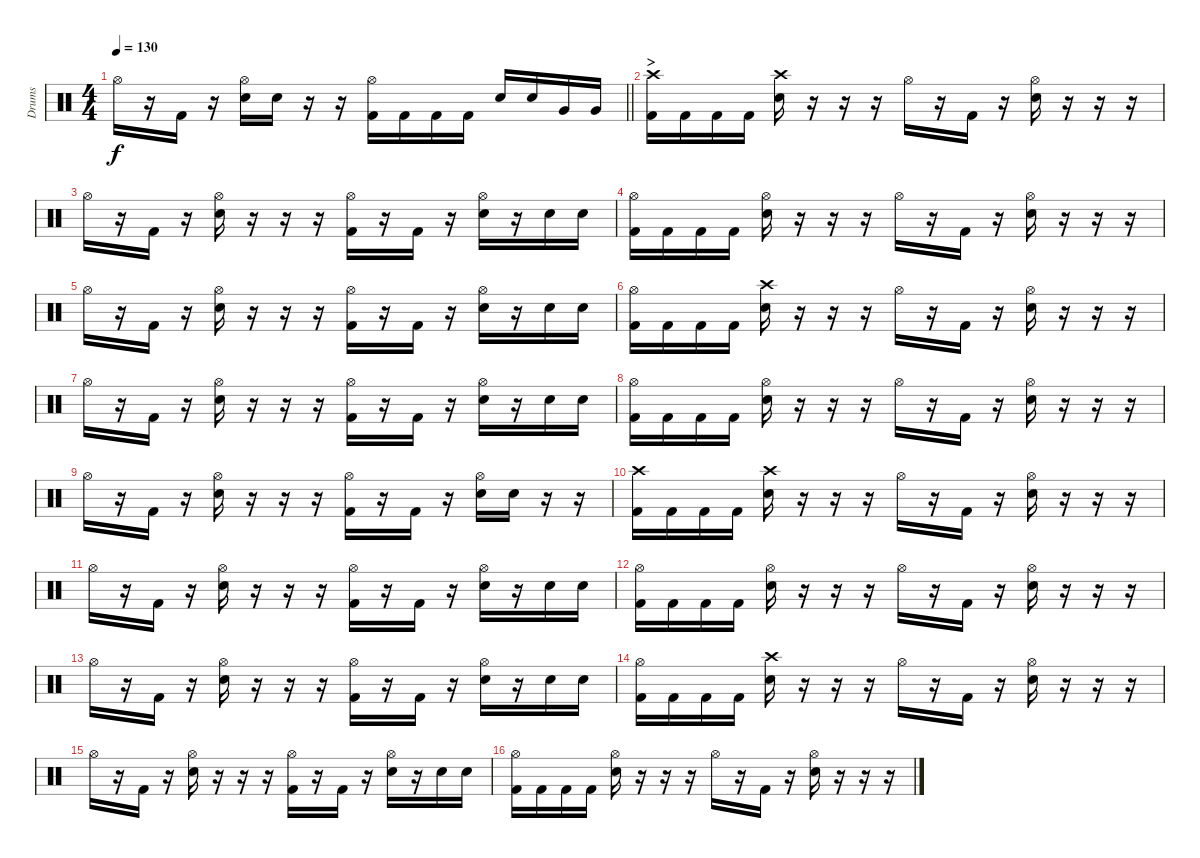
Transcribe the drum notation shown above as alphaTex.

\track ("Drums" "Drums") {instrument percussion}
\staff {score}
\articulation defaults
\ts (4 4)
\tempo 130
\clef neutral
\barLineRight lightlight
\ks c "Hi-Hat (open)".16{dy f}
r.16 "Kick (hit) 2".16 r.16 ("Hi-Hat (open)" "Electric Snare (hit)").16 "Electric Snare (hit)".16 r.16 r.16 ("Hi-Hat (open)" "Kick (hit) 2").16 "Kick (hit) 2".16 "Kick (hit) 2".16 "Kick (hit) 2".16 "Electric Snare (hit)".16 "Electric Snare (hit)".16 "Very Low Tom (hit)".16 "Very Low Tom (hit)".16 |
\section ("" ">")
("Crash high (hit)" "Kick (hit) 2").16 "Kick (hit) 2".16 "Kick (hit) 2".16 "Kick (hit) 2".16 ("Crash high (hit)" "Electric Snare (hit)").16 r.16 r.16 r.16 "Hi-Hat (open)".16 r.16 "Kick (hit) 2".16 r.16 ("Hi-Hat (open)" "Electric Snare (hit)").16 r.16 r.16 r.16 |
"Hi-Hat (open)".16 r.16 "Kick (hit) 2".16 r.16 ("Hi-Hat (open)" "Electric Snare (hit)").16 r.16 r.16 r.16 ("Hi-Hat (open)" "Kick (hit) 2").16 r.16 "Kick (hit) 2".16 r.16 ("Hi-Hat (open)" "Electric Snare (hit)").16 r.16 "Electric Snare (hit)".16 "Electric Snare (hit)".16 |
("Hi-Hat (open)" "Kick (hit) 2").16 "Kick (hit) 2".16 "Kick (hit) 2".16 "Kick (hit) 2".16 ("Hi-Hat (open)" "Electric Snare (hit)").16 r.16 r.16 r.16 "Hi-Hat (open)".16 r.16 "Kick (hit) 2".16 r.16 ("Hi-Hat (open)" "Electric Snare (hit)").16 r.16 r.16 r.16 |
"Hi-Hat (open)".16 r.16 "Kick (hit) 2".16 r.16 ("Hi-Hat (open)" "Electric Snare (hit)").16 r.16 r.16 r.16 ("Hi-Hat (open)" "Kick (hit) 2").16 r.16 "Kick (hit) 2".16 r.16 ("Hi-Hat (open)" "Electric Snare (hit)").16 r.16 "Electric Snare (hit)".16 "Electric Snare (hit)".16 |
("Hi-Hat (open)" "Kick (hit) 2").16 "Kick (hit) 2".16 "Kick (hit) 2".16 "Kick (hit) 2".16 ("Crash high (hit)" "Electric Snare (hit)").16 r.16 r.16 r.16 "Hi-Hat (open)".16 r.16 "Kick (hit) 2".16 r.16 ("Hi-Hat (open)" "Electric Snare (hit)").16 r.16 r.16 r.16 |
"Hi-Hat (open)".16 r.16 "Kick (hit) 2".16 r.16 ("Hi-Hat (open)" "Electric Snare (hit)").16 r.16 r.16 r.16 ("Hi-Hat (open)" "Kick (hit) 2").16 r.16 "Kick (hit) 2".16 r.16 ("Hi-Hat (open)" "Electric Snare (hit)").16 r.16 "Electric Snare (hit)".16 "Electric Snare (hit)".16 |
("Hi-Hat (open)" "Kick (hit) 2").16 "Kick (hit) 2".16 "Kick (hit) 2".16 "Kick (hit) 2".16 ("Hi-Hat (open)" "Electric Snare (hit)").16 r.16 r.16 r.16 "Hi-Hat (open)".16 r.16 "Kick (hit) 2".16 r.16 ("Hi-Hat (open)" "Electric Snare (hit)").16 r.16 r.16 r.16 |
"Hi-Hat (open)".16 r.16 "Kick (hit) 2".16 r.16 ("Hi-Hat (open)" "Electric Snare (hit)").16 r.16 r.16 r.16 ("Hi-Hat (open)" "Kick (hit) 2").16 r.16 "Kick (hit) 2".16 r.16 ("Hi-Hat (open)" "Electric Snare (hit)").16 "Electric Snare (hit)".16 r.16 r.16 |
("Crash high (hit)" "Kick (hit) 2").16 "Kick (hit) 2".16 "Kick (hit) 2".16 "Kick (hit) 2".16 ("Crash high (hit)" "Electric Snare (hit)").16 r.16 r.16 r.16 "Hi-Hat (open)".16 r.16 "Kick (hit) 2".16 r.16 ("Hi-Hat (open)" "Electric Snare (hit)").16 r.16 r.16 r.16 |
"Hi-Hat (open)".16 r.16 "Kick (hit) 2".16 r.16 ("Hi-Hat (open)" "Electric Snare (hit)").16 r.16 r.16 r.16 ("Hi-Hat (open)" "Kick (hit) 2").16 r.16 "Kick (hit) 2".16 r.16 ("Hi-Hat (open)" "Electric Snare (hit)").16 r.16 "Electric Snare (hit)".16 "Electric Snare (hit)".16 |
("Hi-Hat (open)" "Kick (hit) 2").16 "Kick (hit) 2".16 "Kick (hit) 2".16 "Kick (hit) 2".16 ("Hi-Hat (open)" "Electric Snare (hit)").16 r.16 r.16 r.16 "Hi-Hat (open)".16 r.16 "Kick (hit) 2".16 r.16 ("Hi-Hat (open)" "Electric Snare (hit)").16 r.16 r.16 r.16 |
"Hi-Hat (open)".16 r.16 "Kick (hit) 2".16 r.16 ("Hi-Hat (open)" "Electric Snare (hit)").16 r.16 r.16 r.16 ("Hi-Hat (open)" "Kick (hit) 2").16 r.16 "Kick (hit) 2".16 r.16 ("Hi-Hat (open)" "Electric Snare (hit)").16 r.16 "Electric Snare (hit)".16 "Electric Snare (hit)".16 |
("Hi-Hat (open)" "Kick (hit) 2").16 "Kick (hit) 2".16 "Kick (hit) 2".16 "Kick (hit) 2".16 ("Crash high (hit)" "Electric Snare (hit)").16 r.16 r.16 r.16 "Hi-Hat (open)".16 r.16 "Kick (hit) 2".16 r.16 ("Hi-Hat (open)" "Electric Snare (hit)").16 r.16 r.16 r.16 |
"Hi-Hat (open)".16 r.16 "Kick (hit) 2".16 r.16 ("Hi-Hat (open)" "Electric Snare (hit)").16 r.16 r.16 r.16 ("Hi-Hat (open)" "Kick (hit) 2").16 r.16 "Kick (hit) 2".16 r.16 ("Hi-Hat (open)" "Electric Snare (hit)").16 r.16 "Electric Snare (hit)".16 "Electric Snare (hit)".16 |
("Hi-Hat (open)" "Kick (hit) 2").16 "Kick (hit) 2".16 "Kick (hit) 2".16 "Kick (hit) 2".16 ("Hi-Hat (open)" "Electric Snare (hit)").16 r.16 r.16 r.16 "Hi-Hat (open)".16 r.16 "Kick (hit) 2".16 r.16 ("Hi-Hat (open)" "Electric Snare (hit)").16 r.16 r.16 r.16
